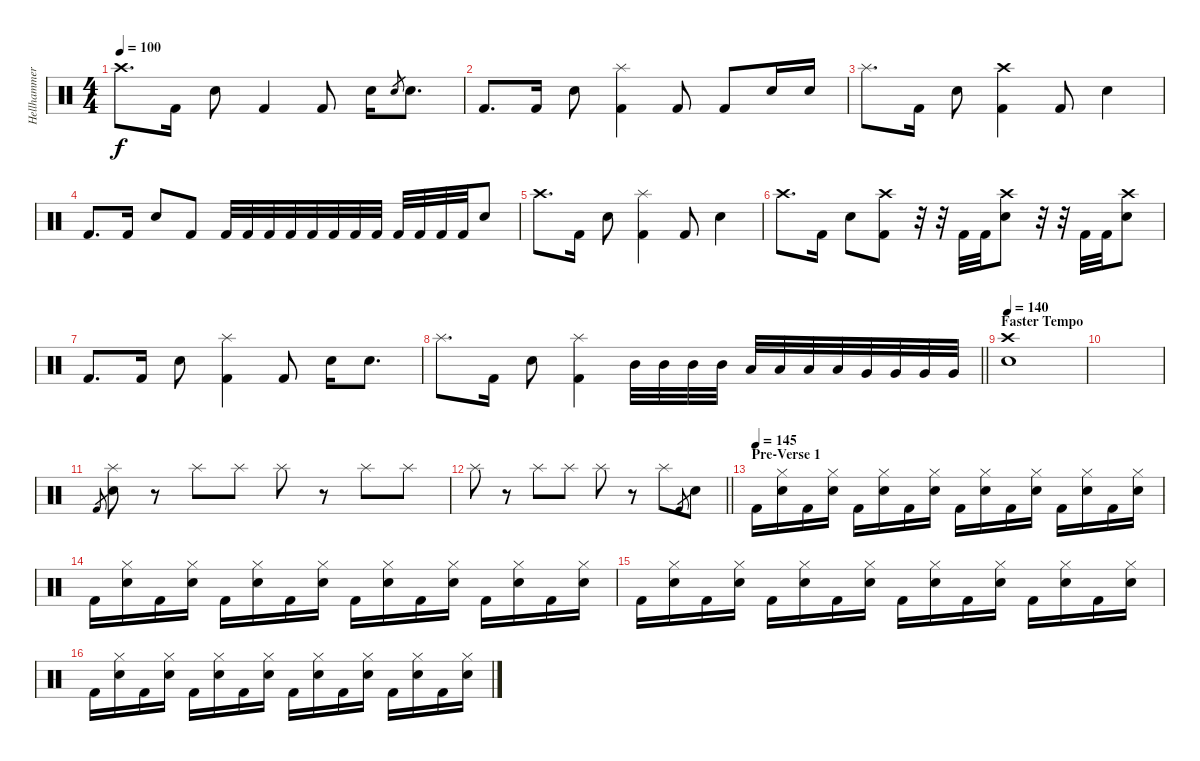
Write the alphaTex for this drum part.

\track ("Hellhammer" "Hellhammer") {instrument percussion}
\staff {score}
\articulation defaults
\ts (4 4)
\tempo 100
\clef neutral
\ks c "Crash high (hit)".8{d dy f} "Kick (hit) 2".16 "Snare (hit) 2".8 "Kick (hit) 2".4 "Kick (hit) 2".8 "Snare (hit) 2".16 "Snare (hit) 2".8{gr} "Snare (hit) 2".8{d}
|
"Kick (hit) 2".8{d} "Kick (hit) 2".16 "Snare (hit) 2".8 ("Splash (hit)" "Kick (hit) 2").4 "Kick (hit) 2".8 "Kick (hit) 2".8 "Snare (hit) 2".16 "Snare (hit) 2".16 |
"Splash (hit)".8{d} "Kick (hit) 2".16 "Snare (hit) 2".8 ("Crash high (hit)" "Kick (hit) 2").4 "Kick (hit) 2".8 "Snare (hit) 2".4 |
"Kick (hit) 2".8{d} "Kick (hit) 2".16 "Snare (hit) 2".8 "Kick (hit) 2".8 "Kick (hit) 2".32 "Kick (hit) 2".32 "Kick (hit) 2".32 "Kick (hit) 2".32 "Kick (hit) 2".32 "Kick (hit) 2".32 "Kick (hit) 2".32 "Kick (hit) 2".32 "Kick (hit) 2".32 "Kick (hit) 2".32 "Kick (hit) 2".32 "Kick (hit) 2".32 "Snare (hit) 2".8 |
"Crash high (hit)".8{d} "Kick (hit) 2".16 "Snare (hit) 2".8 ("Splash (hit)" "Kick (hit) 2").4 "Kick (hit) 2".8 "Snare (hit) 2".4 |
"Crash high (hit)".8{d} "Kick (hit) 2".16 "Snare (hit) 2".8 ("Crash high (hit)" "Kick (hit) 2").8 r.32 r.32 "Kick (hit) 2".32 "Kick (hit) 2".32 ("Crash high (hit)" "Snare (hit) 2").8 r.32 r.32 "Kick (hit) 2".32 "Kick (hit) 2".32 ("Crash high (hit)" "Snare (hit) 2").8 |
"Kick (hit) 2".8{d} "Kick (hit) 2".16 "Snare (hit) 2".8 ("Splash (hit)" "Kick (hit) 2").4 "Kick (hit) 2".8 "Snare (hit) 2".16 "Snare (hit) 2".8{d} |
\barLineRight lightlight "Splash (hit)".8{d} "Kick (hit) 2".16 "Snare (hit) 2".8
("Splash (hit)" "Kick (hit) 2").4 "Mid Tom (hit)".32 "Mid Tom (hit)".32 "Mid Tom (hit)".32 "Mid Tom (hit)".32 "Low Tom (hit)".32 "Low Tom (hit)".32 "Low Tom (hit)".32 "Low Tom (hit)".32 "Very Low Tom (hit)".32 "Very Low Tom (hit)".32 "Very Low Tom (hit)".32 "Very Low Tom (hit)".32 |
\section ("" "Faster Tempo")
\tempo 135
\tempo 140
("Crash high (hit)" "Snare (hit) 2").1 |
|
"Kick (hit) 2".8{gr} ("Splash (hit)" "Snare (hit) 2").8 r.8 "Splash (hit)".8 "Splash (hit)".8 "Splash (hit)".8 r.8 "Splash (hit)".8 "Splash (hit)".8 |
\barLineRight lightlight "Splash (hit)".8
r.8 "Splash (hit)".8 "Splash (hit)".8 "Splash (hit)".8 r.8 "Splash (hit)".8 "Kick (hit) 2".8{gr} "Snare (hit) 2".8 |
\section ("" "Pre-Verse 1")
\tempo (145)
"Kick (hit) 2".16 ("Hi-Hat (closed)" "Snare (hit) 2").16 "Kick (hit) 2".16 ("Hi-Hat (closed)" "Snare (hit) 2").16 "Kick (hit) 2".16 ("Hi-Hat (closed)" "Snare (hit) 2").16 "Kick (hit) 2".16 ("Hi-Hat (closed)" "Snare (hit) 2").16 "Kick (hit) 2".16 ("Hi-Hat (closed)" "Snare (hit) 2").16 "Kick (hit) 2".16 ("Hi-Hat (closed)" "Snare (hit) 2").16 "Kick (hit) 2".16 ("Hi-Hat (closed)" "Snare (hit) 2").16 "Kick (hit) 2".16 ("Hi-Hat (closed)" "Snare (hit) 2").16 |
"Kick (hit) 2".16 ("Hi-Hat (closed)" "Snare (hit) 2").16 "Kick (hit) 2".16 ("Hi-Hat (closed)" "Snare (hit) 2").16 "Kick (hit) 2".16 ("Hi-Hat (closed)" "Snare (hit) 2").16 "Kick (hit) 2".16 ("Hi-Hat (closed)" "Snare (hit) 2").16 "Kick (hit) 2".16 ("Hi-Hat (closed)" "Snare (hit) 2").16 "Kick (hit) 2".16 ("Hi-Hat (closed)" "Snare (hit) 2").16 "Kick (hit) 2".16 ("Hi-Hat (closed)" "Snare (hit) 2").16 "Kick (hit) 2".16 ("Hi-Hat (closed)" "Snare (hit) 2").16 |
"Kick (hit) 2".16 ("Hi-Hat (closed)" "Snare (hit) 2").16 "Kick (hit) 2".16 ("Hi-Hat (closed)" "Snare (hit) 2").16 "Kick (hit) 2".16 ("Hi-Hat (closed)" "Snare (hit) 2").16 "Kick (hit) 2".16 ("Hi-Hat (closed)" "Snare (hit) 2").16 "Kick (hit) 2".16 ("Hi-Hat (closed)" "Snare (hit) 2").16 "Kick (hit) 2".16 ("Hi-Hat (closed)" "Snare (hit) 2").16 "Kick (hit) 2".16 ("Hi-Hat (closed)" "Snare (hit) 2").16 "Kick (hit) 2".16 ("Hi-Hat (closed)" "Snare (hit) 2").16 |
"Kick (hit) 2".16 ("Hi-Hat (closed)" "Snare (hit) 2").16 "Kick (hit) 2".16 ("Hi-Hat (closed)" "Snare (hit) 2").16 "Kick (hit) 2".16 ("Hi-Hat (closed)" "Snare (hit) 2").16 "Kick (hit) 2".16 ("Hi-Hat (closed)" "Snare (hit) 2").16 "Kick (hit) 2".16 ("Hi-Hat (closed)" "Snare (hit) 2").16 "Kick (hit) 2".16 ("Hi-Hat (closed)" "Snare (hit) 2").16 "Kick (hit) 2".16 ("Hi-Hat (closed)" "Snare (hit) 2").16 "Kick (hit) 2".16 ("Hi-Hat (closed)" "Snare (hit) 2").16
